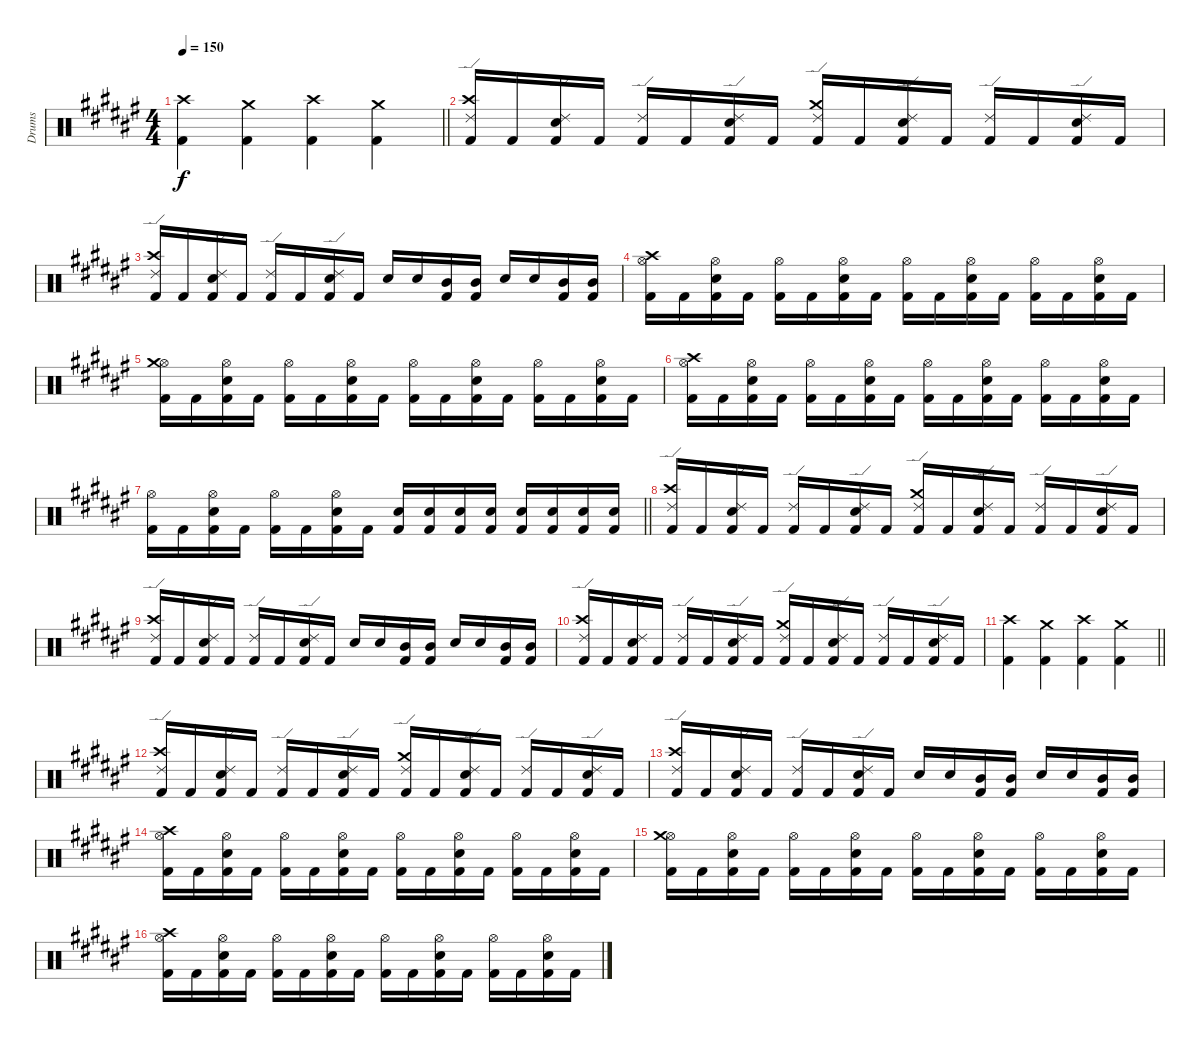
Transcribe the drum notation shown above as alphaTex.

\track ("Drums" "Drums") {instrument percussion}
\staff {score}
\articulation defaults
\ts (4 4)
\tempo 150
\clef neutral
\barLineRight lightlight
\ks d#minor
("Kick (hit) 2" "Crash high (hit)").4{dy f} ("Kick (hit) 2" "Crash medium (hit)").4 ("Kick (hit) 2" "Crash high (hit)").4 ("Kick (hit) 2" "Crash medium (hit)").4 |
("Kick (hit) 2" "Ride (edge) 2" "Crash high (hit)").16 "Kick (hit) 2".16 ("Kick (hit) 2" "Electric Snare (hit)" "Ride (edge) 2").16 "Kick (hit) 2".16 ("Kick (hit) 2" "Ride (edge) 2").16 "Kick (hit) 2".16 ("Kick (hit) 2" "Electric Snare (hit)" "Ride (edge) 2").16 "Kick (hit) 2".16 ("Kick (hit) 2" "Ride (edge) 2" "Crash medium (hit)").16 "Kick (hit) 2".16 ("Kick (hit) 2" "Electric Snare (hit)" "Ride (edge) 2").16 "Kick (hit) 2".16 ("Kick (hit) 2" "Ride (edge) 2").16 "Kick (hit) 2".16 ("Kick (hit) 2" "Electric Snare (hit)" "Ride (edge) 2").16 "Kick (hit) 2".16 |
("Kick (hit) 2" "Ride (edge) 2" "Crash high (hit)").16 "Kick (hit) 2".16 ("Kick (hit) 2" "Electric Snare (hit)" "Ride (edge) 2").16 "Kick (hit) 2".16 ("Kick (hit) 2" "Ride (edge) 2").16 "Kick (hit) 2".16 ("Kick (hit) 2" "Electric Snare (hit)" "Ride (edge) 2").16 "Kick (hit) 2".16 "Electric Snare (hit)".16 "Electric Snare (hit)".16 ("Kick (hit) 2" "Mid Tom (hit)").16 ("Kick (hit) 2" "Mid Tom (hit)").16 "Electric Snare (hit)".16 "Electric Snare (hit)".16 ("Kick (hit) 2" "Mid Tom (hit)").16 ("Kick (hit) 2" "Mid Tom (hit)").16 |
("Kick (hit) 2" "Hi-Hat (open)" "Crash high (hit)").16 "Kick (hit) 2".16 ("Kick (hit) 2" "Electric Snare (hit)" "Hi-Hat (open)").16 "Kick (hit) 2".16 ("Kick (hit) 2" "Hi-Hat (open)").16 "Kick (hit) 2".16 ("Kick (hit) 2" "Electric Snare (hit)" "Hi-Hat (open)").16 "Kick (hit) 2".16 ("Kick (hit) 2" "Hi-Hat (open)").16 "Kick (hit) 2".16 ("Kick (hit) 2" "Electric Snare (hit)" "Hi-Hat (open)").16 "Kick (hit) 2".16 ("Kick (hit) 2" "Hi-Hat (open)").16 "Kick (hit) 2".16 ("Kick (hit) 2" "Electric Snare (hit)" "Hi-Hat (open)").16 "Kick (hit) 2".16 |
("Kick (hit) 2" "Hi-Hat (open)" "Crash medium (hit)").16 "Kick (hit) 2".16 ("Kick (hit) 2" "Electric Snare (hit)" "Hi-Hat (open)").16 "Kick (hit) 2".16 ("Kick (hit) 2" "Hi-Hat (open)").16 "Kick (hit) 2".16 ("Kick (hit) 2" "Electric Snare (hit)" "Hi-Hat (open)").16 "Kick (hit) 2".16 ("Kick (hit) 2" "Hi-Hat (open)").16 "Kick (hit) 2".16 ("Kick (hit) 2" "Electric Snare (hit)" "Hi-Hat (open)").16 "Kick (hit) 2".16 ("Kick (hit) 2" "Hi-Hat (open)").16 "Kick (hit) 2".16 ("Kick (hit) 2" "Electric Snare (hit)" "Hi-Hat (open)").16 "Kick (hit) 2".16 |
("Kick (hit) 2" "Hi-Hat (open)" "Crash high (hit)").16 "Kick (hit) 2".16 ("Kick (hit) 2" "Electric Snare (hit)" "Hi-Hat (open)").16 "Kick (hit) 2".16 ("Kick (hit) 2" "Hi-Hat (open)").16 "Kick (hit) 2".16 ("Kick (hit) 2" "Electric Snare (hit)" "Hi-Hat (open)").16 "Kick (hit) 2".16 ("Kick (hit) 2" "Hi-Hat (open)").16 "Kick (hit) 2".16 ("Kick (hit) 2" "Electric Snare (hit)" "Hi-Hat (open)").16 "Kick (hit) 2".16 ("Kick (hit) 2" "Hi-Hat (open)").16 "Kick (hit) 2".16 ("Kick (hit) 2" "Electric Snare (hit)" "Hi-Hat (open)").16 "Kick (hit) 2".16 |
\barLineRight lightlight
("Kick (hit) 2" "Hi-Hat (open)").16 "Kick (hit) 2".16 ("Kick (hit) 2" "Electric Snare (hit)" "Hi-Hat (open)").16 "Kick (hit) 2".16 ("Kick (hit) 2" "Hi-Hat (open)").16 "Kick (hit) 2".16 ("Kick (hit) 2" "Electric Snare (hit)" "Hi-Hat (open)").16 "Kick (hit) 2".16 ("Kick (hit) 2" "Electric Snare (hit)").16 ("Kick (hit) 2" "Electric Snare (hit)").16 ("Kick (hit) 2" "Electric Snare (hit)").16 ("Kick (hit) 2" "Electric Snare (hit)").16 ("Kick (hit) 2" "Electric Snare (hit)").16 ("Kick (hit) 2" "Electric Snare (hit)").16 ("Kick (hit) 2" "Electric Snare (hit)").16 ("Kick (hit) 2" "Electric Snare (hit)").16 |
("Kick (hit) 2" "Ride (edge) 2" "Crash high (hit)").16 "Kick (hit) 2".16 ("Kick (hit) 2" "Electric Snare (hit)" "Ride (edge) 2").16 "Kick (hit) 2".16 ("Kick (hit) 2" "Ride (edge) 2").16 "Kick (hit) 2".16 ("Kick (hit) 2" "Electric Snare (hit)" "Ride (edge) 2").16 "Kick (hit) 2".16 ("Kick (hit) 2" "Ride (edge) 2" "Crash medium (hit)").16 "Kick (hit) 2".16 ("Kick (hit) 2" "Electric Snare (hit)" "Ride (edge) 2").16 "Kick (hit) 2".16 ("Kick (hit) 2" "Ride (edge) 2").16 "Kick (hit) 2".16 ("Kick (hit) 2" "Electric Snare (hit)" "Ride (edge) 2").16 "Kick (hit) 2".16 |
("Kick (hit) 2" "Ride (edge) 2" "Crash high (hit)").16 "Kick (hit) 2".16 ("Kick (hit) 2" "Electric Snare (hit)" "Ride (edge) 2").16 "Kick (hit) 2".16 ("Kick (hit) 2" "Ride (edge) 2").16 "Kick (hit) 2".16 ("Kick (hit) 2" "Electric Snare (hit)" "Ride (edge) 2").16 "Kick (hit) 2".16 "Electric Snare (hit)".16 "Electric Snare (hit)".16 ("Kick (hit) 2" "Mid Tom (hit)").16 ("Kick (hit) 2" "Mid Tom (hit)").16 "Electric Snare (hit)".16 "Electric Snare (hit)".16 ("Kick (hit) 2" "Mid Tom (hit)").16 ("Kick (hit) 2" "Mid Tom (hit)").16 |
("Kick (hit) 2" "Ride (edge) 2" "Crash high (hit)").16 "Kick (hit) 2".16 ("Kick (hit) 2" "Electric Snare (hit)" "Ride (edge) 2").16 "Kick (hit) 2".16 ("Kick (hit) 2" "Ride (edge) 2").16 "Kick (hit) 2".16 ("Kick (hit) 2" "Electric Snare (hit)" "Ride (edge) 2").16 "Kick (hit) 2".16 ("Kick (hit) 2" "Ride (edge) 2" "Crash medium (hit)").16 "Kick (hit) 2".16 ("Kick (hit) 2" "Electric Snare (hit)" "Ride (edge) 2").16 "Kick (hit) 2".16 ("Kick (hit) 2" "Ride (edge) 2").16 "Kick (hit) 2".16 ("Kick (hit) 2" "Electric Snare (hit)" "Ride (edge) 2").16 "Kick (hit) 2".16 |
\barLineRight lightlight
("Kick (hit) 2" "Crash high (hit)").4 ("Kick (hit) 2" "Crash medium (hit)").4 ("Kick (hit) 2" "Crash high (hit)").4 ("Kick (hit) 2" "Crash medium (hit)").4 |
("Kick (hit) 2" "Ride (edge) 2" "Crash high (hit)").16 "Kick (hit) 2".16 ("Kick (hit) 2" "Electric Snare (hit)" "Ride (edge) 2").16 "Kick (hit) 2".16 ("Kick (hit) 2" "Ride (edge) 2").16 "Kick (hit) 2".16 ("Kick (hit) 2" "Electric Snare (hit)" "Ride (edge) 2").16 "Kick (hit) 2".16 ("Kick (hit) 2" "Ride (edge) 2" "Crash medium (hit)").16 "Kick (hit) 2".16 ("Kick (hit) 2" "Electric Snare (hit)" "Ride (edge) 2").16 "Kick (hit) 2".16 ("Kick (hit) 2" "Ride (edge) 2").16 "Kick (hit) 2".16 ("Kick (hit) 2" "Electric Snare (hit)" "Ride (edge) 2").16 "Kick (hit) 2".16 |
("Kick (hit) 2" "Ride (edge) 2" "Crash high (hit)").16 "Kick (hit) 2".16 ("Kick (hit) 2" "Electric Snare (hit)" "Ride (edge) 2").16 "Kick (hit) 2".16 ("Kick (hit) 2" "Ride (edge) 2").16 "Kick (hit) 2".16 ("Kick (hit) 2" "Electric Snare (hit)" "Ride (edge) 2").16 "Kick (hit) 2".16 "Electric Snare (hit)".16 "Electric Snare (hit)".16 ("Kick (hit) 2" "Mid Tom (hit)").16 ("Kick (hit) 2" "Mid Tom (hit)").16 "Electric Snare (hit)".16 "Electric Snare (hit)".16 ("Kick (hit) 2" "Mid Tom (hit)").16 ("Kick (hit) 2" "Mid Tom (hit)").16 |
("Kick (hit) 2" "Hi-Hat (open)" "Crash high (hit)").16 "Kick (hit) 2".16 ("Kick (hit) 2" "Electric Snare (hit)" "Hi-Hat (open)").16 "Kick (hit) 2".16 ("Kick (hit) 2" "Hi-Hat (open)").16 "Kick (hit) 2".16 ("Kick (hit) 2" "Electric Snare (hit)" "Hi-Hat (open)").16 "Kick (hit) 2".16 ("Kick (hit) 2" "Hi-Hat (open)").16 "Kick (hit) 2".16 ("Kick (hit) 2" "Electric Snare (hit)" "Hi-Hat (open)").16 "Kick (hit) 2".16 ("Kick (hit) 2" "Hi-Hat (open)").16 "Kick (hit) 2".16 ("Kick (hit) 2" "Electric Snare (hit)" "Hi-Hat (open)").16 "Kick (hit) 2".16 |
("Kick (hit) 2" "Hi-Hat (open)" "Crash medium (hit)").16 "Kick (hit) 2".16 ("Kick (hit) 2" "Electric Snare (hit)" "Hi-Hat (open)").16 "Kick (hit) 2".16 ("Kick (hit) 2" "Hi-Hat (open)").16 "Kick (hit) 2".16 ("Kick (hit) 2" "Electric Snare (hit)" "Hi-Hat (open)").16 "Kick (hit) 2".16 ("Kick (hit) 2" "Hi-Hat (open)").16 "Kick (hit) 2".16 ("Kick (hit) 2" "Electric Snare (hit)" "Hi-Hat (open)").16 "Kick (hit) 2".16 ("Kick (hit) 2" "Hi-Hat (open)").16 "Kick (hit) 2".16 ("Kick (hit) 2" "Electric Snare (hit)" "Hi-Hat (open)").16 "Kick (hit) 2".16 |
("Kick (hit) 2" "Hi-Hat (open)" "Crash high (hit)").16 "Kick (hit) 2".16 ("Kick (hit) 2" "Electric Snare (hit)" "Hi-Hat (open)").16 "Kick (hit) 2".16 ("Kick (hit) 2" "Hi-Hat (open)").16 "Kick (hit) 2".16 ("Kick (hit) 2" "Electric Snare (hit)" "Hi-Hat (open)").16 "Kick (hit) 2".16 ("Kick (hit) 2" "Hi-Hat (open)").16 "Kick (hit) 2".16 ("Kick (hit) 2" "Electric Snare (hit)" "Hi-Hat (open)").16 "Kick (hit) 2".16 ("Kick (hit) 2" "Hi-Hat (open)").16 "Kick (hit) 2".16 ("Kick (hit) 2" "Electric Snare (hit)" "Hi-Hat (open)").16 "Kick (hit) 2".16
